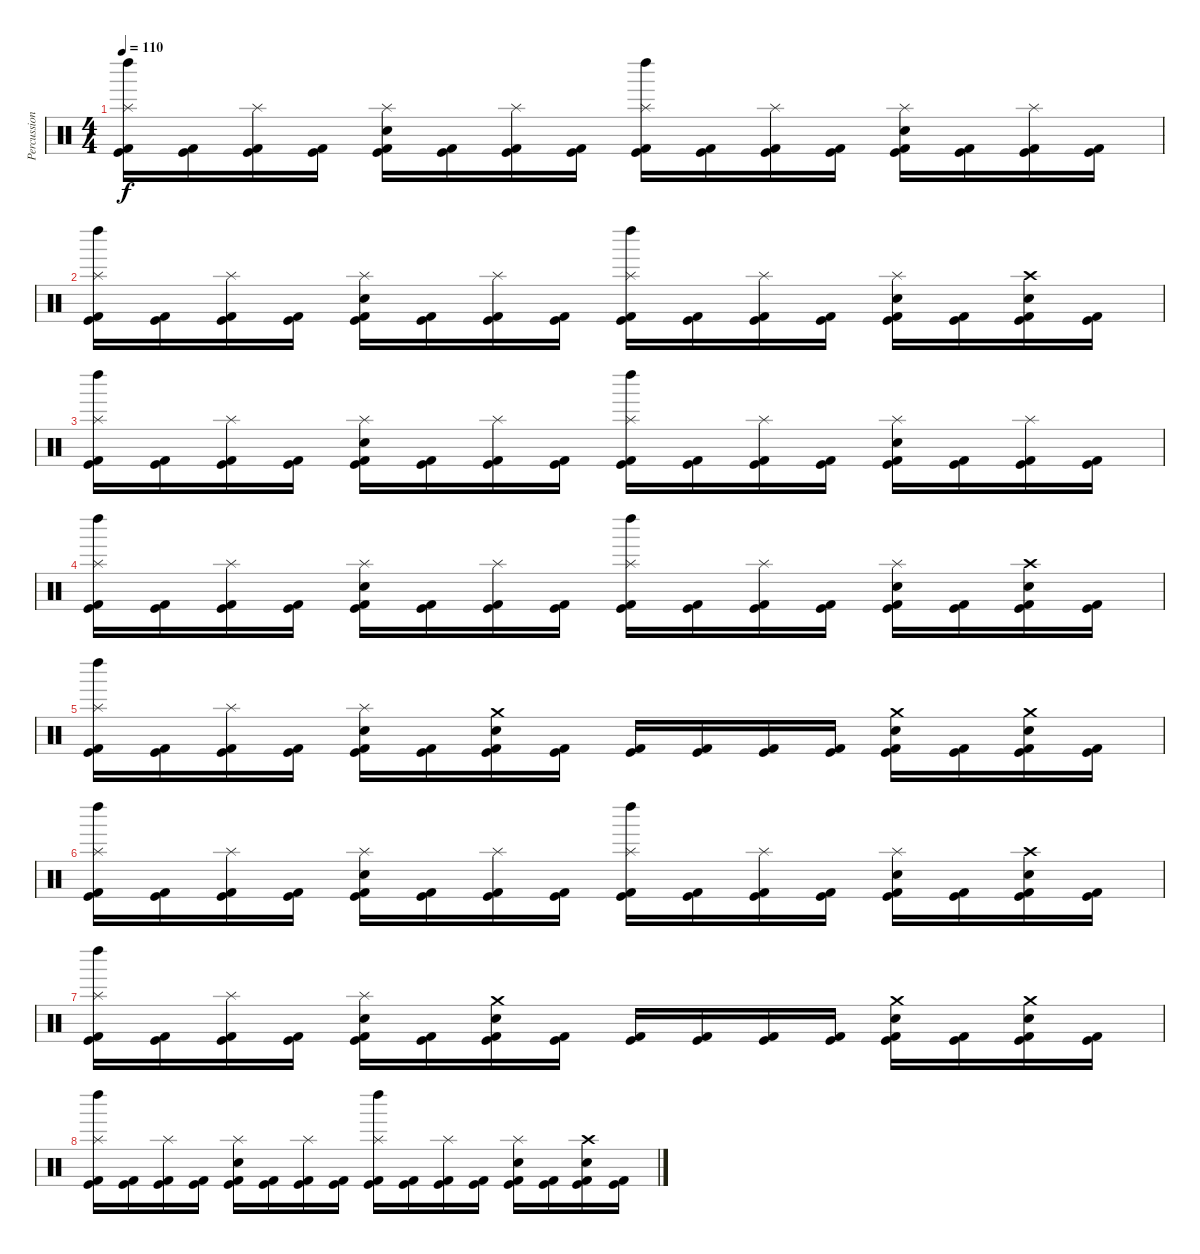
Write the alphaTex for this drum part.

\track ("Percussions" "Percussion") {instrument percussion}
\staff {score}
\articulation defaults
\ts (4 4)
\tempo 110
\clef neutral
\ks c
("Kick (hit)" "Kick (hit) 2" "Splash (hit)" "Left Maraca (hit)").16{dy f} ("Kick (hit)" "Kick (hit) 2").16 ("Kick (hit)" "Kick (hit) 2" "Splash (hit)").16 ("Kick (hit)" "Kick (hit) 2").16 ("Kick (hit)" "Kick (hit) 2" "Splash (hit)" "Electric Snare (hit)").16 ("Kick (hit)" "Kick (hit) 2").16 ("Kick (hit)" "Kick (hit) 2" "Splash (hit)").16 ("Kick (hit)" "Kick (hit) 2").16 ("Kick (hit)" "Kick (hit) 2" "Splash (hit)" "Left Maraca (hit)").16 ("Kick (hit)" "Kick (hit) 2").16 ("Kick (hit)" "Kick (hit) 2" "Splash (hit)").16 ("Kick (hit)" "Kick (hit) 2").16 ("Kick (hit)" "Kick (hit) 2" "Splash (hit)" "Electric Snare (hit)").16 ("Kick (hit)" "Kick (hit) 2").16 ("Kick (hit)" "Kick (hit) 2" "Splash (hit)").16 ("Kick (hit)" "Kick (hit) 2").16 |
("Kick (hit)" "Kick (hit) 2" "Splash (hit)" "Left Maraca (hit)").16 ("Kick (hit)" "Kick (hit) 2").16 ("Kick (hit)" "Kick (hit) 2" "Splash (hit)").16 ("Kick (hit)" "Kick (hit) 2").16 ("Kick (hit)" "Kick (hit) 2" "Splash (hit)" "Electric Snare (hit)").16 ("Kick (hit)" "Kick (hit) 2").16 ("Kick (hit)" "Kick (hit) 2" "Splash (hit)").16 ("Kick (hit)" "Kick (hit) 2").16 ("Kick (hit)" "Kick (hit) 2" "Splash (hit)" "Left Maraca (hit)").16 ("Kick (hit)" "Kick (hit) 2").16 ("Kick (hit)" "Kick (hit) 2" "Splash (hit)").16 ("Kick (hit)" "Kick (hit) 2").16 ("Kick (hit)" "Kick (hit) 2" "Splash (hit)" "Electric Snare (hit)").16 ("Kick (hit)" "Kick (hit) 2").16 ("Kick (hit)" "Kick (hit) 2" "Crash high (hit)" "Electric Snare (hit)").16 ("Kick (hit)" "Kick (hit) 2").16 |
("Kick (hit)" "Kick (hit) 2" "Splash (hit)" "Left Maraca (hit)").16 ("Kick (hit)" "Kick (hit) 2").16 ("Kick (hit)" "Kick (hit) 2" "Splash (hit)").16 ("Kick (hit)" "Kick (hit) 2").16 ("Kick (hit)" "Kick (hit) 2" "Splash (hit)" "Electric Snare (hit)").16 ("Kick (hit)" "Kick (hit) 2").16 ("Kick (hit)" "Kick (hit) 2" "Splash (hit)").16 ("Kick (hit)" "Kick (hit) 2").16 ("Kick (hit)" "Kick (hit) 2" "Splash (hit)" "Left Maraca (hit)").16 ("Kick (hit)" "Kick (hit) 2").16 ("Kick (hit)" "Kick (hit) 2" "Splash (hit)").16 ("Kick (hit)" "Kick (hit) 2").16 ("Kick (hit)" "Kick (hit) 2" "Splash (hit)" "Electric Snare (hit)").16 ("Kick (hit)" "Kick (hit) 2").16 ("Kick (hit)" "Kick (hit) 2" "Splash (hit)").16 ("Kick (hit)" "Kick (hit) 2").16 |
("Kick (hit)" "Kick (hit) 2" "Splash (hit)" "Left Maraca (hit)").16 ("Kick (hit)" "Kick (hit) 2").16 ("Kick (hit)" "Kick (hit) 2" "Splash (hit)").16 ("Kick (hit)" "Kick (hit) 2").16 ("Kick (hit)" "Kick (hit) 2" "Splash (hit)" "Electric Snare (hit)").16 ("Kick (hit)" "Kick (hit) 2").16 ("Kick (hit)" "Kick (hit) 2" "Splash (hit)").16 ("Kick (hit)" "Kick (hit) 2").16 ("Kick (hit)" "Kick (hit) 2" "Splash (hit)" "Left Maraca (hit)").16 ("Kick (hit)" "Kick (hit) 2").16 ("Kick (hit)" "Kick (hit) 2" "Splash (hit)").16 ("Kick (hit)" "Kick (hit) 2").16 ("Kick (hit)" "Kick (hit) 2" "Splash (hit)" "Electric Snare (hit)").16 ("Kick (hit)" "Kick (hit) 2").16 ("Kick (hit)" "Kick (hit) 2" "Crash high (hit)" "Electric Snare (hit)").16 ("Kick (hit)" "Kick (hit) 2").16 |
("Kick (hit)" "Kick (hit) 2" "Splash (hit)" "Left Maraca (hit)").16 ("Kick (hit)" "Kick (hit) 2").16 ("Kick (hit)" "Kick (hit) 2" "Splash (hit)").16 ("Kick (hit)" "Kick (hit) 2").16 ("Kick (hit)" "Kick (hit) 2" "Splash (hit)" "Electric Snare (hit)").16 ("Kick (hit)" "Kick (hit) 2").16 ("Kick (hit)" "Kick (hit) 2" "Electric Snare (hit)" "Crash medium (hit)").16 ("Kick (hit)" "Kick (hit) 2").16 ("Kick (hit)" "Kick (hit) 2").16 ("Kick (hit)" "Kick (hit) 2").16 ("Kick (hit)" "Kick (hit) 2").16 ("Kick (hit)" "Kick (hit) 2").16 ("Kick (hit)" "Kick (hit) 2" "Electric Snare (hit)" "Crash medium (hit)").16 ("Kick (hit)" "Kick (hit) 2").16 ("Kick (hit)" "Kick (hit) 2" "Electric Snare (hit)" "Crash medium (hit)").16 ("Kick (hit)" "Kick (hit) 2").16 |
("Kick (hit)" "Kick (hit) 2" "Splash (hit)" "Left Maraca (hit)").16 ("Kick (hit)" "Kick (hit) 2").16 ("Kick (hit)" "Kick (hit) 2" "Splash (hit)").16 ("Kick (hit)" "Kick (hit) 2").16 ("Kick (hit)" "Kick (hit) 2" "Splash (hit)" "Electric Snare (hit)").16 ("Kick (hit)" "Kick (hit) 2").16 ("Kick (hit)" "Kick (hit) 2" "Splash (hit)").16 ("Kick (hit)" "Kick (hit) 2").16 ("Kick (hit)" "Kick (hit) 2" "Splash (hit)" "Left Maraca (hit)").16 ("Kick (hit)" "Kick (hit) 2").16 ("Kick (hit)" "Kick (hit) 2" "Splash (hit)").16 ("Kick (hit)" "Kick (hit) 2").16 ("Kick (hit)" "Kick (hit) 2" "Splash (hit)" "Electric Snare (hit)").16 ("Kick (hit)" "Kick (hit) 2").16 ("Kick (hit)" "Kick (hit) 2" "Crash high (hit)" "Electric Snare (hit)").16 ("Kick (hit)" "Kick (hit) 2").16 |
("Kick (hit)" "Kick (hit) 2" "Splash (hit)" "Left Maraca (hit)").16 ("Kick (hit)" "Kick (hit) 2").16 ("Kick (hit)" "Kick (hit) 2" "Splash (hit)").16 ("Kick (hit)" "Kick (hit) 2").16 ("Kick (hit)" "Kick (hit) 2" "Splash (hit)" "Electric Snare (hit)").16 ("Kick (hit)" "Kick (hit) 2").16 ("Kick (hit)" "Kick (hit) 2" "Electric Snare (hit)" "Crash medium (hit)").16 ("Kick (hit)" "Kick (hit) 2").16 ("Kick (hit)" "Kick (hit) 2").16 ("Kick (hit)" "Kick (hit) 2").16 ("Kick (hit)" "Kick (hit) 2").16 ("Kick (hit)" "Kick (hit) 2").16 ("Kick (hit)" "Kick (hit) 2" "Electric Snare (hit)" "Crash medium (hit)").16 ("Kick (hit)" "Kick (hit) 2").16 ("Kick (hit)" "Kick (hit) 2" "Electric Snare (hit)" "Crash medium (hit)").16 ("Kick (hit)" "Kick (hit) 2").16 |
("Kick (hit)" "Kick (hit) 2" "Splash (hit)" "Left Maraca (hit)").16 ("Kick (hit)" "Kick (hit) 2").16 ("Kick (hit)" "Kick (hit) 2" "Splash (hit)").16 ("Kick (hit)" "Kick (hit) 2").16 ("Kick (hit)" "Kick (hit) 2" "Splash (hit)" "Electric Snare (hit)").16 ("Kick (hit)" "Kick (hit) 2").16 ("Kick (hit)" "Kick (hit) 2" "Splash (hit)").16 ("Kick (hit)" "Kick (hit) 2").16 ("Kick (hit)" "Kick (hit) 2" "Splash (hit)" "Left Maraca (hit)").16 ("Kick (hit)" "Kick (hit) 2").16 ("Kick (hit)" "Kick (hit) 2" "Splash (hit)").16 ("Kick (hit)" "Kick (hit) 2").16 ("Kick (hit)" "Kick (hit) 2" "Splash (hit)" "Electric Snare (hit)").16 ("Kick (hit)" "Kick (hit) 2").16 ("Kick (hit)" "Kick (hit) 2" "Crash high (hit)" "Electric Snare (hit)").16 ("Kick (hit)" "Kick (hit) 2").16
